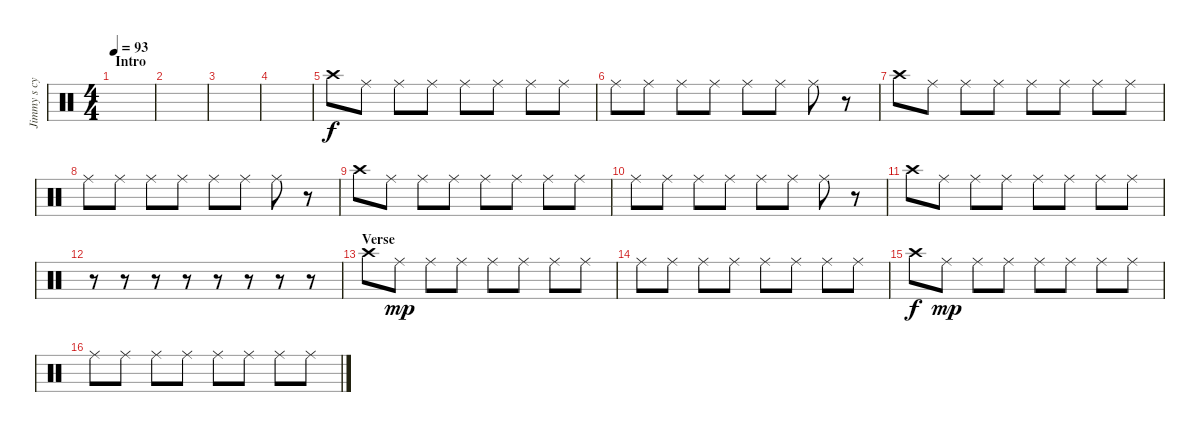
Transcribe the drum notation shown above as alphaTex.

\track ("Jimmy s cymbals" "Jimmy s cy") {instrument percussion}
\staff {score}
\articulation defaults
\ts (4 4)
\section ("" "Intro")
\tempo 93
\clef neutral
\ks c
|
|
|
|
"Crash high (hit)".8 "Ride (middle)".8 "Ride (middle)".8 "Ride (middle)".8 "Ride (middle)".8 "Ride (middle)".8 "Ride (middle)".8 "Ride (middle)".8 |
"Ride (middle)".8 "Ride (middle)".8 "Ride (middle)".8 "Ride (middle)".8 "Ride (middle)".8 "Ride (middle)".8 "Ride (middle)".8 r.8 |
"Crash high (hit)".8 "Ride (middle)".8 "Ride (middle)".8 "Ride (middle)".8 "Ride (middle)".8 "Ride (middle)".8 "Ride (middle)".8 "Ride (middle)".8 |
"Ride (middle)".8 "Ride (middle)".8 "Ride (middle)".8 "Ride (middle)".8 "Ride (middle)".8 "Ride (middle)".8 "Ride (middle)".8 r.8 |
"Crash high (hit)".8 "Ride (middle)".8 "Ride (middle)".8 "Ride (middle)".8 "Ride (middle)".8 "Ride (middle)".8 "Ride (middle)".8 "Ride (middle)".8 |
"Ride (middle)".8 "Ride (middle)".8 "Ride (middle)".8 "Ride (middle)".8 "Ride (middle)".8 "Ride (middle)".8 "Ride (middle)".8 r.8 |
"Crash high (hit)".8 "Ride (middle)".8 "Ride (middle)".8 "Ride (middle)".8 "Ride (middle)".8 "Ride (middle)".8 "Ride (middle)".8 "Ride (middle)".8 |
r.8 r.8 r.8 r.8 r.8 r.8 r.8 r.8 |
\section ("" "Verse")
"Crash high (hit)".8 "Ride (middle)".8{dy mp} "Ride (middle)".8 "Ride (middle)".8 "Ride (middle)".8 "Ride (middle)".8 "Ride (middle)".8 "Ride (middle)".8 |
"Ride (middle)".8 "Ride (middle)".8 "Ride (middle)".8 "Ride (middle)".8 "Ride (middle)".8 "Ride (middle)".8 "Ride (middle)".8 "Ride (middle)".8 |
"Crash high (hit)".8{dy f} "Ride (middle)".8{dy mp} "Ride (middle)".8 "Ride (middle)".8 "Ride (middle)".8 "Ride (middle)".8 "Ride (middle)".8 "Ride (middle)".8 |
"Ride (middle)".8 "Ride (middle)".8 "Ride (middle)".8 "Ride (middle)".8 "Ride (middle)".8 "Ride (middle)".8 "Ride (middle)".8 "Ride (middle)".8
